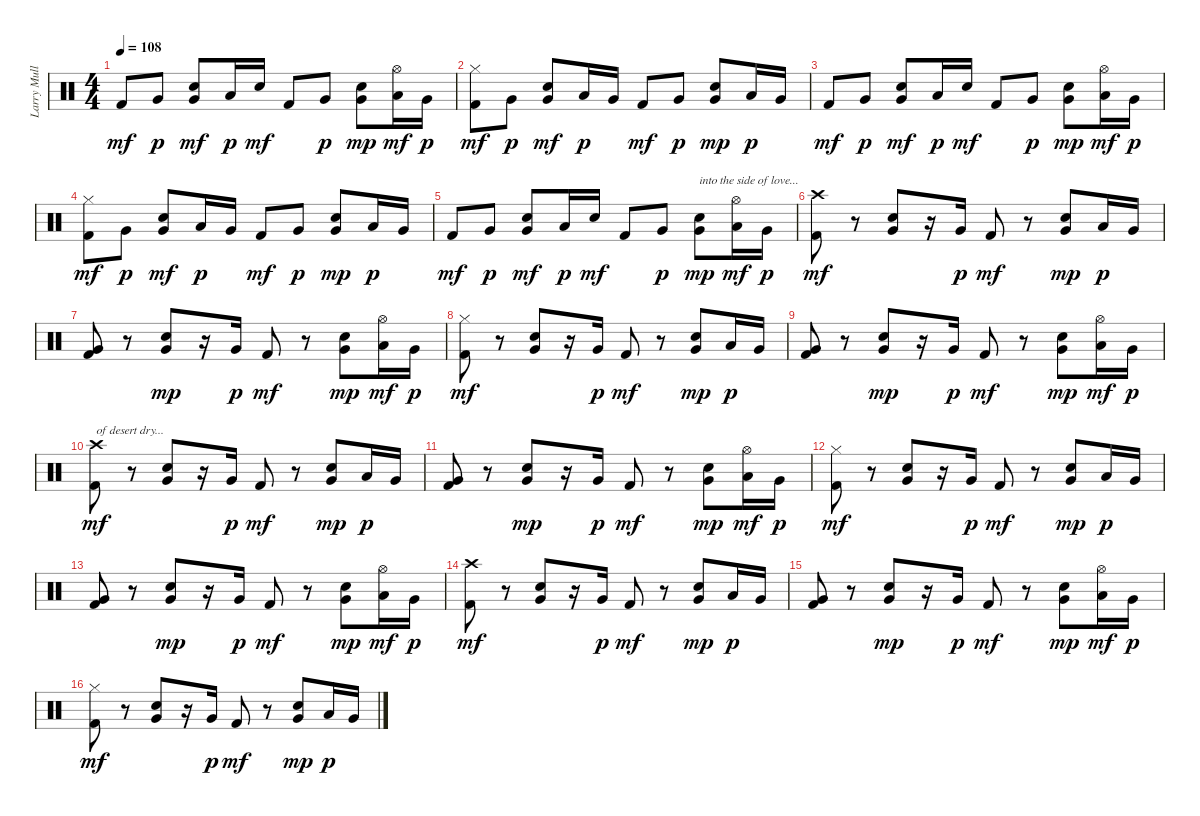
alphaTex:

\track ("Larry Mullen Jr." "Larry Mull") {instrument percussion}
\staff {score}
\articulation defaults
\ts (4 4)
\tempo 108
\clef neutral
\ks c "Kick (hit) 2".8{dy mf} "Very Low Tom (hit)".8{dy p}
("Electric Snare (hit)" "Very Low Tom (hit)").8{dy mf} "Low Floor Tom (hit)".16{dy p} "Electric Snare (hit)".16{dy mf} "Kick (hit) 2".8 "Very Low Tom (hit)".8{dy p} ("Electric Snare (hit)" "Very Low Tom (hit)").8{dy mp} ("Low Floor Tom (hit)" "Hi-Hat (open)").16{dy mf} "Very Low Tom (hit)".16{dy p} |
("Kick (hit) 2" "Hi-Hat (closed)").8{dy mf} "Very Low Tom (hit)".8{dy p} ("Electric Snare (hit)" "Very Low Tom (hit)").8{dy mf} "Low Floor Tom (hit)".16{dy p} "Very Low Tom (hit)".16 "Kick (hit) 2".8{dy mf} "Very Low Tom (hit)".8{dy p} ("Electric Snare (hit)" "Very Low Tom (hit)").8{dy mp} "Low Floor Tom (hit)".16{dy p} "Very Low Tom (hit)".16 |
"Kick (hit) 2".8{dy mf} "Very Low Tom (hit)".8{dy p} ("Electric Snare (hit)" "Very Low Tom (hit)").8{dy mf} "Low Floor Tom (hit)".16{dy p} "Electric Snare (hit)".16{dy mf} "Kick (hit) 2".8 "Very Low Tom (hit)".8{dy p} ("Electric Snare (hit)" "Very Low Tom (hit)").8{dy mp} ("Low Floor Tom (hit)" "Hi-Hat (open)").16{dy mf} "Very Low Tom (hit)".16{dy p} |
("Kick (hit) 2" "Hi-Hat (closed)").8{dy mf} "Very Low Tom (hit)".8{dy p} ("Electric Snare (hit)" "Very Low Tom (hit)").8{dy mf} "Low Floor Tom (hit)".16{dy p} "Very Low Tom (hit)".16 "Kick (hit) 2".8{dy mf} "Very Low Tom (hit)".8{dy p} ("Electric Snare (hit)" "Very Low Tom (hit)").8{dy mp} "Low Floor Tom (hit)".16{dy p} "Very Low Tom (hit)".16 |
"Kick (hit) 2".8{dy mf} "Very Low Tom (hit)".8{dy p} ("Electric Snare (hit)" "Very Low Tom (hit)").8{dy mf} "Low Floor Tom (hit)".16{dy p} "Electric Snare (hit)".16{dy mf} "Kick (hit) 2".8 "Very Low Tom (hit)".8{dy p} ("Electric Snare (hit)" "Very Low Tom (hit)").8{txt "into the side of love..." dy mp} ("Low Floor Tom (hit)" "Hi-Hat (open)").16{dy mf} "Very Low Tom (hit)".16{dy p} |
("Kick (hit) 2" "Crash high (hit)").8{dy mf} r.8 ("Electric Snare (hit)" "Very Low Tom (hit)").8 r.16 "Very Low Tom (hit)".16{dy p} "Kick (hit) 2".8{dy mf} r.8 ("Electric Snare (hit)" "Very Low Tom (hit)").8{dy mp} "Low Floor Tom (hit)".16{dy p} "Very Low Tom (hit)".16 |
("Kick (hit) 2" "Very Low Tom (hit)").8 r.8 ("Electric Snare (hit)" "Very Low Tom (hit)").8{dy mp} r.16 "Very Low Tom (hit)".16{dy p} "Kick (hit) 2".8{dy mf} r.8 ("Electric Snare (hit)" "Very Low Tom (hit)").8{dy mp} ("Low Floor Tom (hit)" "Hi-Hat (open)").16{dy mf} "Very Low Tom (hit)".16{dy p} |
("Kick (hit) 2" "Hi-Hat (closed)").8{dy mf} r.8 ("Electric Snare (hit)" "Very Low Tom (hit)").8 r.16 "Very Low Tom (hit)".16{dy p} "Kick (hit) 2".8{dy mf} r.8 ("Electric Snare (hit)" "Very Low Tom (hit)").8{dy mp} "Low Floor Tom (hit)".16{dy p} "Very Low Tom (hit)".16 |
("Kick (hit) 2" "Very Low Tom (hit)").8 r.8 ("Electric Snare (hit)" "Very Low Tom (hit)").8{dy mp} r.16 "Very Low Tom (hit)".16{dy p} "Kick (hit) 2".8{dy mf} r.8 ("Electric Snare (hit)" "Very Low Tom (hit)").8{dy mp} ("Low Floor Tom (hit)" "Hi-Hat (open)").16{dy mf} "Very Low Tom (hit)".16{dy p} |
("Kick (hit) 2" "Crash high (hit)").8{txt "of desert dry..." dy mf} r.8 ("Electric Snare (hit)" "Very Low Tom (hit)").8 r.16 "Very Low Tom (hit)".16{dy p} "Kick (hit) 2".8{dy mf} r.8 ("Electric Snare (hit)" "Very Low Tom (hit)").8{dy mp} "Low Floor Tom (hit)".16{dy p} "Very Low Tom (hit)".16 |
("Kick (hit) 2" "Very Low Tom (hit)").8 r.8 ("Electric Snare (hit)" "Very Low Tom (hit)").8{dy mp} r.16 "Very Low Tom (hit)".16{dy p} "Kick (hit) 2".8{dy mf} r.8 ("Electric Snare (hit)" "Very Low Tom (hit)").8{dy mp} ("Low Floor Tom (hit)" "Hi-Hat (open)").16{dy mf} "Very Low Tom (hit)".16{dy p} |
("Kick (hit) 2" "Hi-Hat (closed)").8{dy mf} r.8 ("Electric Snare (hit)" "Very Low Tom (hit)").8 r.16 "Very Low Tom (hit)".16{dy p} "Kick (hit) 2".8{dy mf} r.8 ("Electric Snare (hit)" "Very Low Tom (hit)").8{dy mp} "Low Floor Tom (hit)".16{dy p} "Very Low Tom (hit)".16 |
("Kick (hit) 2" "Very Low Tom (hit)").8 r.8 ("Electric Snare (hit)" "Very Low Tom (hit)").8{dy mp} r.16 "Very Low Tom (hit)".16{dy p} "Kick (hit) 2".8{dy mf} r.8 ("Electric Snare (hit)" "Very Low Tom (hit)").8{dy mp} ("Low Floor Tom (hit)" "Hi-Hat (open)").16{dy mf} "Very Low Tom (hit)".16{dy p} |
("Kick (hit) 2" "Crash high (hit)").8{dy mf} r.8 ("Electric Snare (hit)" "Very Low Tom (hit)").8 r.16 "Very Low Tom (hit)".16{dy p} "Kick (hit) 2".8{dy mf} r.8 ("Electric Snare (hit)" "Very Low Tom (hit)").8{dy mp} "Low Floor Tom (hit)".16{dy p} "Very Low Tom (hit)".16 |
("Kick (hit) 2" "Very Low Tom (hit)").8 r.8 ("Electric Snare (hit)" "Very Low Tom (hit)").8{dy mp} r.16 "Very Low Tom (hit)".16{dy p} "Kick (hit) 2".8{dy mf} r.8 ("Electric Snare (hit)" "Very Low Tom (hit)").8{dy mp} ("Low Floor Tom (hit)" "Hi-Hat (open)").16{dy mf} "Very Low Tom (hit)".16{dy p} |
("Kick (hit) 2" "Hi-Hat (closed)").8{dy mf} r.8 ("Electric Snare (hit)" "Very Low Tom (hit)").8 r.16 "Very Low Tom (hit)".16{dy p} "Kick (hit) 2".8{dy mf} r.8 ("Electric Snare (hit)" "Very Low Tom (hit)").8{dy mp} "Low Floor Tom (hit)".16{dy p} "Very Low Tom (hit)".16
